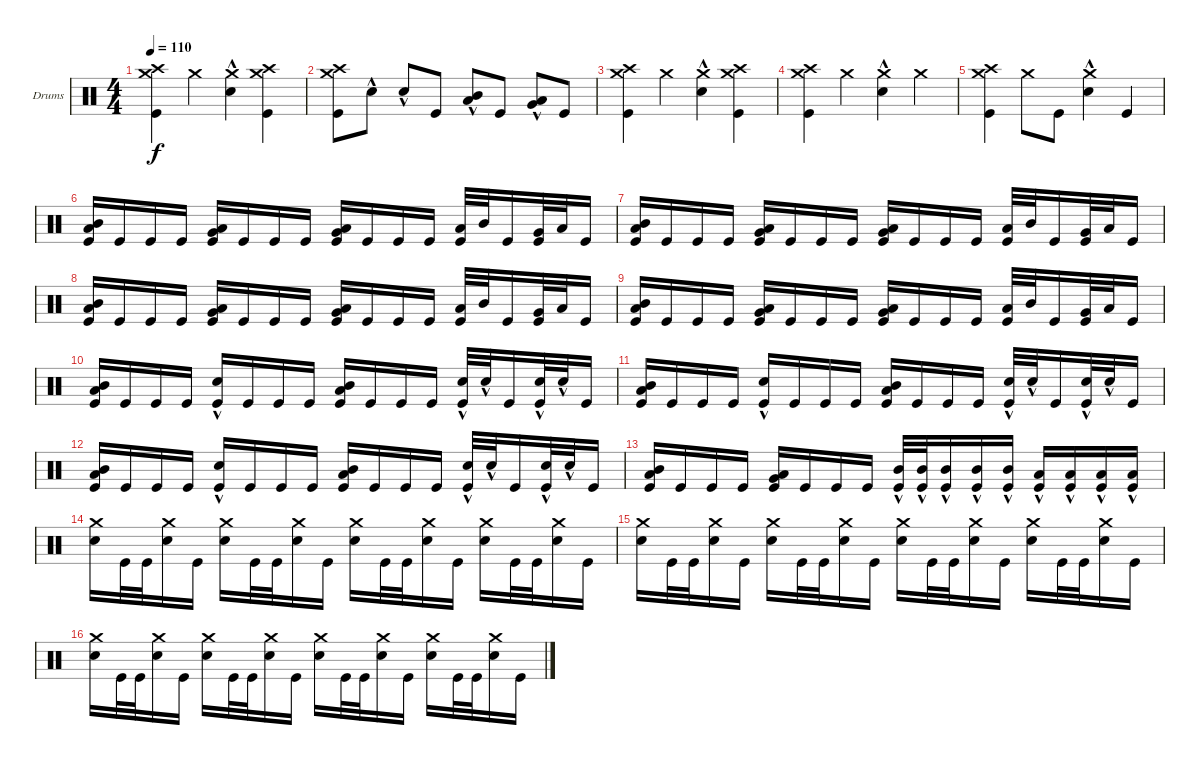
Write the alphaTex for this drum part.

\defaultSystemsLayout 4
\bracketExtendMode groupsimilarinstruments
\firstSystemTrackNameOrientation horizontal
\otherSystemsTrackNameOrientation horizontal
\track ("Drumkit" "Drums") {instrument percussion}
\staff {score}
\articulation defaults
\ts (4 4)
\tempo 110
\clef neutral
\scale
0.333333
\ks c
("Crash medium (hit)" "Crash high (hit)" "Kick (hit)").4{dy f} "Crash medium (hit)".4 ("Crash medium (hit)" "Snare (hit) 2"{hac}).4 ("Crash medium (hit)" "Kick (hit)" "Crash high (hit)").4 |
\scale
0.333333 ("Kick (hit)" "Crash medium (hit)" "Crash high (hit)").8 "Snare (hit) 2"{hac}.8 "Snare (hit) 2"{hac}.8 "Kick (hit)".8 ("Mid Tom (hit)"{hac} "Low Tom (hit)"{hac}).8 "Kick (hit)".8 ("Very Low Tom (hit)"{hac} "Low Tom (hit)"{hac}).8 "Kick (hit)".8 |
\scale
0.333333 ("Crash medium (hit)" "Crash high (hit)" "Kick (hit)").4 "Crash medium (hit)".4 ("Crash medium (hit)" "Snare (hit) 2"{hac}).4 ("Crash medium (hit)" "Kick (hit)" "Crash high (hit)").4 |
\scale
0.333333 ("Crash medium (hit)" "Crash high (hit)" "Kick (hit)").4 "Crash medium (hit)".4 ("Crash medium (hit)" "Snare (hit) 2"{hac}).4 "Crash medium (hit)".4 |
\scale
0.333333 ("Crash medium (hit)" "Crash high (hit)" "Kick (hit)").4 "Crash medium (hit)".8 "Kick (hit)".8 ("Snare (hit) 2"{hac} "Crash medium (hit)").4 "Kick (hit)".4 |
\scale
0.333333 ("Kick (hit)" "Mid Tom (hit)" "Low Tom (hit)").16 "Kick (hit)".16 "Kick (hit)".16 "Kick (hit)".16 ("Kick (hit)" "Very Low Tom (hit)" "Low Tom (hit)").16 "Kick (hit)".16 "Kick (hit)".16 "Kick (hit)".16 ("Kick (hit)" "Low Tom (hit)" "Very Low Tom (hit)").16 "Kick (hit)".16 "Kick (hit)".16 "Kick (hit)".16 ("Kick (hit)" "Low Tom (hit)").32 "Mid Tom (hit)".32 "Kick (hit)".16 ("Kick (hit)" "Very Low Tom (hit)").32 "Low Tom (hit)".32 "Kick (hit)".16 |
\scale
0.333333 ("Kick (hit)" "Mid Tom (hit)" "Low Tom (hit)").16 "Kick (hit)".16 "Kick (hit)".16 "Kick (hit)".16 ("Kick (hit)" "Very Low Tom (hit)" "Low Tom (hit)").16 "Kick (hit)".16 "Kick (hit)".16 "Kick (hit)".16 ("Kick (hit)" "Low Tom (hit)" "Very Low Tom (hit)").16 "Kick (hit)".16 "Kick (hit)".16 "Kick (hit)".16 ("Kick (hit)" "Low Tom (hit)").32 "Mid Tom (hit)".32 "Kick (hit)".16 ("Kick (hit)" "Very Low Tom (hit)").32 "Low Tom (hit)".32 "Kick (hit)".16 |
\scale
0.333333 ("Kick (hit)" "Mid Tom (hit)" "Low Tom (hit)").16 "Kick (hit)".16 "Kick (hit)".16 "Kick (hit)".16 ("Kick (hit)" "Very Low Tom (hit)" "Low Tom (hit)").16 "Kick (hit)".16 "Kick (hit)".16 "Kick (hit)".16 ("Kick (hit)" "Low Tom (hit)" "Very Low Tom (hit)").16 "Kick (hit)".16 "Kick (hit)".16 "Kick (hit)".16 ("Kick (hit)" "Low Tom (hit)").32 "Mid Tom (hit)".32 "Kick (hit)".16 ("Kick (hit)" "Very Low Tom (hit)").32 "Low Tom (hit)".32 "Kick (hit)".16 |
\scale
0.333333 ("Kick (hit)" "Mid Tom (hit)" "Low Tom (hit)").16 "Kick (hit)".16 "Kick (hit)".16 "Kick (hit)".16 ("Kick (hit)" "Very Low Tom (hit)" "Low Tom (hit)").16 "Kick (hit)".16 "Kick (hit)".16 "Kick (hit)".16 ("Kick (hit)" "Low Tom (hit)" "Very Low Tom (hit)").16 "Kick (hit)".16 "Kick (hit)".16 "Kick (hit)".16 ("Kick (hit)" "Low Tom (hit)").32 "Mid Tom (hit)".32 "Kick (hit)".16 ("Kick (hit)" "Very Low Tom (hit)").32 "Low Tom (hit)".32 "Kick (hit)".16 |
\scale
0.333333 ("Kick (hit)" "Mid Tom (hit)" "Low Tom (hit)").16 "Kick (hit)".16 "Kick (hit)".16 "Kick (hit)".16 ("Kick (hit)" "Snare (hit) 2"{hac}).16 "Kick (hit)".16 "Kick (hit)".16 "Kick (hit)".16 ("Kick (hit)" "Low Tom (hit)" "Mid Tom (hit)").16 "Kick (hit)".16 "Kick (hit)".16 "Kick (hit)".16 ("Kick (hit)" "Snare (hit) 2"{hac}).32 "Snare (hit) 2"{hac}.32 "Kick (hit)".16 ("Kick (hit)" "Snare (hit) 2"{hac}).32 "Snare (hit) 2"{hac}.32 "Kick (hit)".16 |
\scale
0.333333 ("Kick (hit)" "Mid Tom (hit)" "Low Tom (hit)").16 "Kick (hit)".16 "Kick (hit)".16 "Kick (hit)".16 ("Kick (hit)" "Snare (hit) 2"{hac}).16 "Kick (hit)".16 "Kick (hit)".16 "Kick (hit)".16 ("Kick (hit)" "Low Tom (hit)" "Mid Tom (hit)").16 "Kick (hit)".16 "Kick (hit)".16 "Kick (hit)".16 ("Kick (hit)" "Snare (hit) 2"{hac}).32 "Snare (hit) 2"{hac}.32 "Kick (hit)".16 ("Kick (hit)" "Snare (hit) 2"{hac}).32 "Snare (hit) 2"{hac}.32 "Kick (hit)".16 |
\scale
0.333333 ("Kick (hit)" "Mid Tom (hit)" "Low Tom (hit)").16 "Kick (hit)".16 "Kick (hit)".16 "Kick (hit)".16 ("Kick (hit)" "Snare (hit) 2"{hac}).16 "Kick (hit)".16 "Kick (hit)".16 "Kick (hit)".16 ("Kick (hit)" "Low Tom (hit)" "Mid Tom (hit)").16 "Kick (hit)".16 "Kick (hit)".16 "Kick (hit)".16 ("Kick (hit)" "Snare (hit) 2"{hac}).32 "Snare (hit) 2"{hac}.32 "Kick (hit)".16 ("Kick (hit)" "Snare (hit) 2"{hac}).32 "Snare (hit) 2"{hac}.32 "Kick (hit)".16 |
\scale
0.333333 ("Kick (hit)" "Mid Tom (hit)" "Low Tom (hit)").16 "Kick (hit)".16 "Kick (hit)".16 "Kick (hit)".16 ("Kick (hit)" "Low Tom (hit)" "Very Low Tom (hit)").16 "Kick (hit)".16 "Kick (hit)".16 "Kick (hit)".16 ("Kick (hit)" "Mid Tom (hit)"{hac}).32 ("Kick (hit)" "Mid Tom (hit)"{hac}).32 ("Kick (hit)" "Mid Tom (hit)"{hac}).16 ("Kick (hit)" "Mid Tom (hit)"{hac}).16 ("Kick (hit)" "Mid Tom (hit)"{hac}).16 ("Kick (hit)" "Low Tom (hit)"{hac}).16 ("Kick (hit)" "Low Tom (hit)"{hac}).16 ("Low Tom (hit)"{hac} "Kick (hit)").16 ("Kick (hit)" "Low Tom (hit)"{hac}).16 |
\scale
0.333333 ("Snare (hit) 2" "Crash medium (hit)").16 "Kick (hit)".32 "Kick (hit)".32 ("Snare (hit) 2" "Crash medium (hit)").16 "Kick (hit)".16 ("Snare (hit) 2" "Crash medium (hit)").16 "Kick (hit)".32 "Kick (hit)".32 ("Snare (hit) 2" "Crash medium (hit)").16 "Kick (hit)".16 ("Snare (hit) 2" "Crash medium (hit)").16 "Kick (hit)".32 "Kick (hit)".32 ("Snare (hit) 2" "Crash medium (hit)").16 "Kick (hit)".16 ("Snare (hit) 2" "Crash medium (hit)").16 "Kick (hit)".32 "Kick (hit)".32 ("Snare (hit) 2" "Crash medium (hit)").16 "Kick (hit)".16 |
\scale
0.333333 ("Snare (hit) 2" "Crash medium (hit)").16 "Kick (hit)".32 "Kick (hit)".32 ("Snare (hit) 2" "Crash medium (hit)").16 "Kick (hit)".16 ("Snare (hit) 2" "Crash medium (hit)").16 "Kick (hit)".32 "Kick (hit)".32 ("Snare (hit) 2" "Crash medium (hit)").16 "Kick (hit)".16 ("Snare (hit) 2" "Crash medium (hit)").16 "Kick (hit)".32 "Kick (hit)".32 ("Snare (hit) 2" "Crash medium (hit)").16 "Kick (hit)".16 ("Snare (hit) 2" "Crash medium (hit)").16 "Kick (hit)".32 "Kick (hit)".32 ("Snare (hit) 2" "Crash medium (hit)").16 "Kick (hit)".16 |
\scale
0.333333 ("Snare (hit) 2" "Crash medium (hit)").16 "Kick (hit)".32 "Kick (hit)".32 ("Snare (hit) 2" "Crash medium (hit)").16 "Kick (hit)".16 ("Snare (hit) 2" "Crash medium (hit)").16 "Kick (hit)".32 "Kick (hit)".32 ("Snare (hit) 2" "Crash medium (hit)").16 "Kick (hit)".16 ("Snare (hit) 2" "Crash medium (hit)").16 "Kick (hit)".32 "Kick (hit)".32 ("Snare (hit) 2" "Crash medium (hit)").16 "Kick (hit)".16 ("Snare (hit) 2" "Crash medium (hit)").16 "Kick (hit)".32 "Kick (hit)".32 ("Snare (hit) 2" "Crash medium (hit)").16 "Kick (hit)".16
